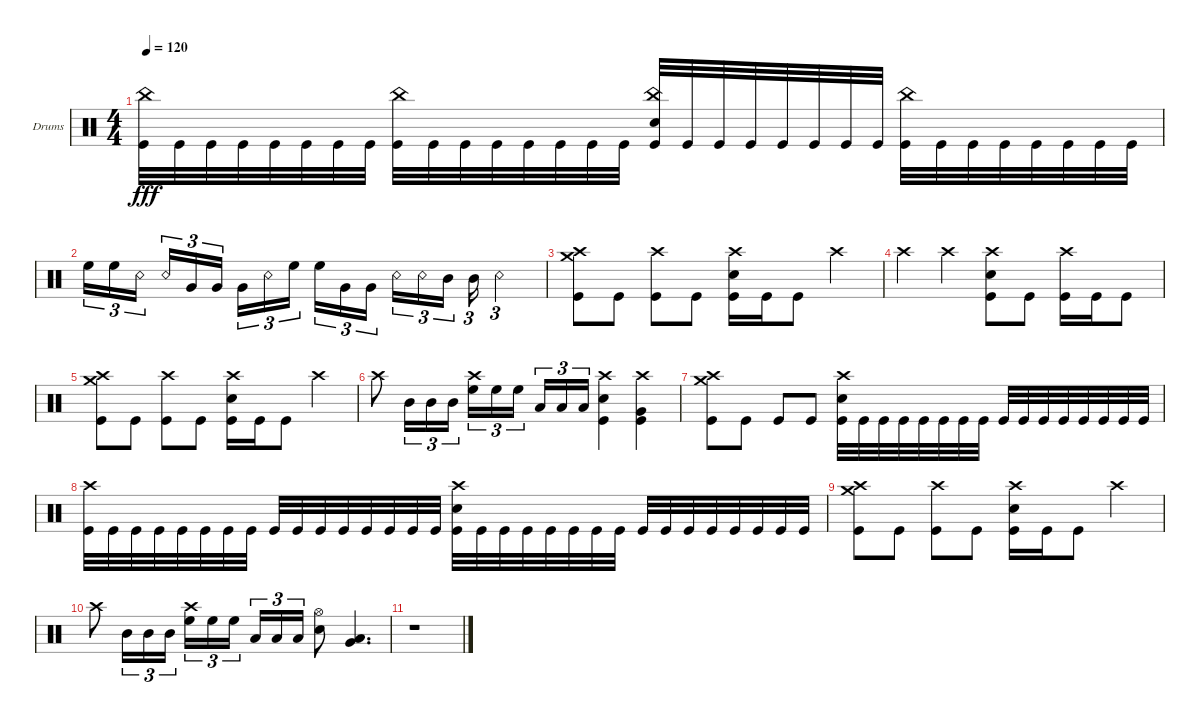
\defaultSystemsLayout 4
\bracketExtendMode groupsimilarinstruments
\firstSystemTrackNameOrientation horizontal
\otherSystemsTrackNameOrientation horizontal
\track ("Drumkit" "Drums") {instrument percussion}
\staff {score}
\articulation defaults
\ts (4 4)
\tempo 120
\clef neutral
\ks c
("Kick (hit)" "China (hit)").32{dy fff} "Kick (hit)".32 "Kick (hit)".32 "Kick (hit)".32 "Kick (hit)".32 "Kick (hit)".32 "Kick (hit)".32 "Kick (hit)".32 ("Kick (hit)" "China (hit)").32 "Kick (hit)".32 "Kick (hit)".32 "Kick (hit)".32 "Kick (hit)".32 "Kick (hit)".32 "Kick (hit)".32 "Kick (hit)".32 ("Kick (hit)" "China (hit)" "Snare (hit) 2").32 "Kick (hit)".32 "Kick (hit)".32 "Kick (hit)".32 "Kick (hit)".32 "Kick (hit)".32 "Kick (hit)".32 "Kick (hit)".32 ("Kick (hit)" "China (hit)").32 "Kick (hit)".32 "Kick (hit)".32 "Kick (hit)".32 "Kick (hit)".32 "Kick (hit)".32 "Kick (hit)".32 "Kick (hit)".32 |
"High Floor Tom (hit)".16{tu (3 2)} "High Floor Tom (hit)".16{tu (3 2)} "Snare (rim shot)".16{tu (3 2)} "Snare (rim shot)".16{tu (3 2)} "Very Low Tom (hit)".16{tu (3 2)} "Very Low Tom (hit)".16{tu (3 2)} "Very Low Tom (hit)".16{tu (3 2)} "Snare (rim shot)".16{tu (3 2)} "High Floor Tom (hit)".16{tu (3 2)} "High Floor Tom (hit)".16{tu (3 2)} "Very Low Tom (hit)".16{tu (3 2)} "Very Low Tom (hit)".16{tu (3 2)} "Snare (rim shot)".16{tu (3 2)} "Snare (rim shot)".16{tu (3 2)} "Mid Tom (hit)".16{tu (3 2)} "Mid Tom (hit)".16{tu (3 2)} "Snare (rim shot)".2{tu (3 2)} |
("Kick (hit)" "Crash medium (hit)" "Crash high (hit)").8 "Kick (hit)".8 ("Kick (hit)" "Crash high (hit)").8 "Kick (hit)".8 ("Kick (hit)" "Snare (hit) 2" "Crash high (hit)").16 "Kick (hit)".16 "Kick (hit)".8 "Crash high (hit)".4 |
"Crash high (hit)".4 "Crash high (hit)".4 ("Kick (hit)" "Snare (hit) 2" "Crash high (hit)").8 "Kick (hit)".8 ("Kick (hit)" "Crash high (hit)").16 "Kick (hit)".16 "Kick (hit)".8 |
("Kick (hit)" "Crash medium (hit)" "Crash high (hit)").8 "Kick (hit)".8 ("Kick (hit)" "Crash high (hit)").8 "Kick (hit)".8 ("Kick (hit)" "Snare (hit) 2" "Crash high (hit)").16 "Kick (hit)".16 "Kick (hit)".8 "Crash high (hit)".4 |
"Crash high (hit)".8 "Mid Tom (hit)".16{tu (3 2)} "Mid Tom (hit)".16{tu (3 2)} "Mid Tom (hit)".16{tu (3 2)} ("High Floor Tom (hit)" "Crash high (hit)").16{tu (3 2)} "High Floor Tom (hit)".16{tu (3 2)} "High Floor Tom (hit)".16{tu (3 2)} "Low Tom (hit)".16{tu (3 2)} "Low Tom (hit)".16{tu (3 2)} "Low Tom (hit)".16{tu (3 2)} ("Kick (hit)" "Snare (hit) 2" "Crash high (hit)").4 ("Kick (hit)" "Very Low Tom (hit)" "Crash high (hit)").4 |
("Crash medium (hit)" "Crash high (hit)" "Kick (hit)").8 "Kick (hit)".8 "Kick (hit)".8 "Kick (hit)".8 ("Kick (hit)" "Snare (hit) 2" "Crash high (hit)").32 "Kick (hit)".32 "Kick (hit)".32 "Kick (hit)".32 "Kick (hit)".32 "Kick (hit)".32 "Kick (hit)".32 "Kick (hit)".32 "Kick (hit)".32 "Kick (hit)".32 "Kick (hit)".32 "Kick (hit)".32 "Kick (hit)".32 "Kick (hit)".32 "Kick (hit)".32 "Kick (hit)".32 |
("Kick (hit)" "Crash high (hit)").32 "Kick (hit)".32 "Kick (hit)".32 "Kick (hit)".32 "Kick (hit)".32 "Kick (hit)".32 "Kick (hit)".32 "Kick (hit)".32 "Kick (hit)".32 "Kick (hit)".32 "Kick (hit)".32 "Kick (hit)".32 "Kick (hit)".32 "Kick (hit)".32 "Kick (hit)".32 "Kick (hit)".32 ("Kick (hit)" "Snare (hit) 2" "Crash high (hit)").32 "Kick (hit)".32 "Kick (hit)".32 "Kick (hit)".32 "Kick (hit)".32 "Kick (hit)".32 "Kick (hit)".32 "Kick (hit)".32 "Kick (hit)".32 "Kick (hit)".32 "Kick (hit)".32 "Kick (hit)".32 "Kick (hit)".32 "Kick (hit)".32 "Kick (hit)".32 "Kick (hit)".32 |
("Kick (hit)" "Crash medium (hit)" "Crash high (hit)").8 "Kick (hit)".8 ("Kick (hit)" "Crash high (hit)").8 "Kick (hit)".8 ("Kick (hit)" "Snare (hit) 2" "Crash high (hit)").16 "Kick (hit)".16 "Kick (hit)".8 "Crash high (hit)".4 |
"Crash high (hit)".8 "Mid Tom (hit)".16{tu (3 2)} "Mid Tom (hit)".16{tu (3 2)} "Mid Tom (hit)".16{tu (3 2)} ("High Floor Tom (hit)" "Crash high (hit)").16{tu (3 2)} "High Floor Tom (hit)".16{tu (3 2)} "High Floor Tom (hit)".16{tu (3 2)} "Low Tom (hit)".16{tu (3 2)} "Low Tom (hit)".16{tu (3 2)} "Low Tom (hit)".16{tu (3 2)} ("Snare (hit) 2" "Hi-Hat (open)").8 ("Very Low Tom (hit)" "Low Tom (hit)").4{d} |
r.1
